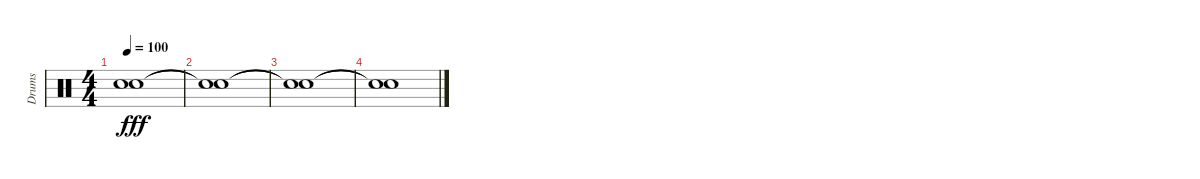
\track ("Drums" "Drums") {instrument percussion}
\staff {score}
\articulation defaults
\ts (4 4)
\tempo 100
\clef neutral
\ks c
("Snare (hit)"{t} "Snare (hit)"{t}).1{dy fff} |
("Snare (hit)"{t} "Snare (hit)"{t}).1 |
("Snare (hit)"{t} "Snare (hit)"{t}).1 |
("Snare (hit)"{t} "Snare (hit)"{t}).1
